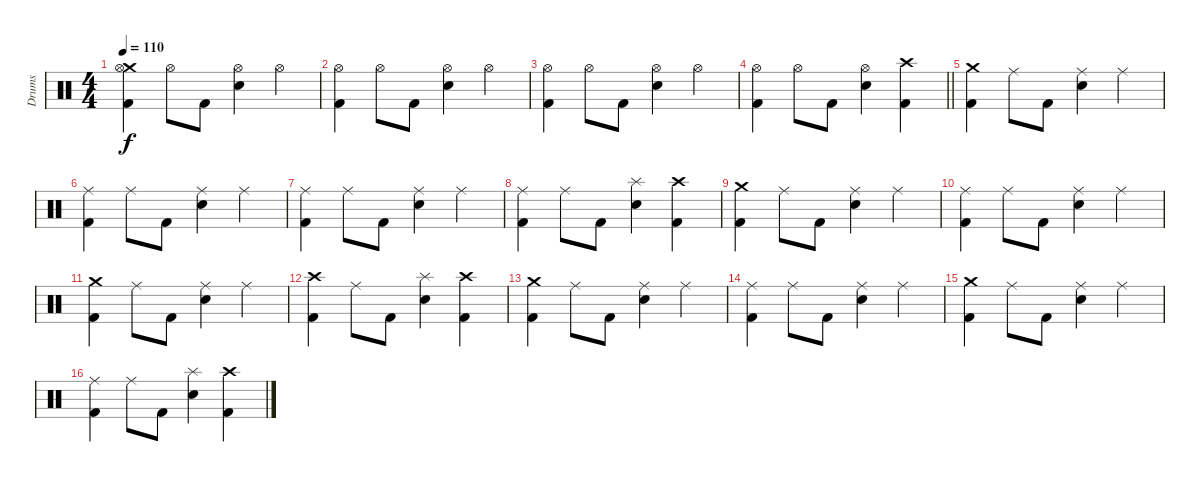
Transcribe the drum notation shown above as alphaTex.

\track ("Drums" "Drums") {instrument percussion}
\staff {score}
\articulation defaults
\ts (4 4)
\tempo 110
\clef neutral
\ks c
("Crash medium (hit)" "Hi-Hat (open)" "Kick (hit) 2").4{dy f} "Hi-Hat (open)".8 "Kick (hit) 2".8 ("Hi-Hat (open)" "Snare (hit) 2").4 "Hi-Hat (open)".4 |
("Hi-Hat (open)" "Kick (hit) 2").4 "Hi-Hat (open)".8 "Kick (hit) 2".8 ("Hi-Hat (open)" "Snare (hit) 2").4 "Hi-Hat (open)".4 |
("Hi-Hat (open)" "Kick (hit) 2").4 "Hi-Hat (open)".8 "Kick (hit) 2".8 ("Hi-Hat (open)" "Snare (hit) 2").4 "Hi-Hat (open)".4 |
\barLineRight lightlight
("Hi-Hat (open)" "Kick (hit) 2").4 "Hi-Hat (open)".8 "Kick (hit) 2".8 ("Hi-Hat (open)" "Snare (hit) 2").4 ("Crash high (hit)" "Kick (hit) 2").4 |
("Crash medium (hit)" "Kick (hit) 2").4 "Ride (middle)".8 "Kick (hit) 2".8 ("Ride (middle)" "Snare (hit) 2").4 "Ride (middle)".4 |
("Ride (middle)" "Kick (hit) 2").4 "Ride (middle)".8 "Kick (hit) 2".8 ("Ride (middle)" "Snare (hit) 2").4 "Ride (middle)".4 |
("Ride (middle)" "Kick (hit) 2").4 "Ride (middle)".8 "Kick (hit) 2".8 ("Ride (middle)" "Snare (hit) 2").4 "Ride (middle)".4 |
("Ride (middle)" "Kick (hit) 2").4 "Ride (middle)".8 "Kick (hit) 2".8 ("Splash (hit)" "Snare (hit) 2").4 ("Crash high (hit)" "Kick (hit) 2").4 |
("Crash medium (hit)" "Kick (hit) 2").4 "Ride (middle)".8 "Kick (hit) 2".8 ("Ride (middle)" "Snare (hit) 2").4 "Ride (middle)".4 |
("Ride (middle)" "Kick (hit) 2").4 "Ride (middle)".8 "Kick (hit) 2".8 ("Ride (middle)" "Snare (hit) 2").4 "Ride (middle)".4 |
("Crash medium (hit)" "Kick (hit) 2").4 "Ride (middle)".8 "Kick (hit) 2".8 ("Ride (middle)" "Snare (hit) 2").4 "Ride (middle)".4 |
("Crash high (hit)" "Kick (hit) 2").4 "Ride (middle)".8 "Kick (hit) 2".8 ("Splash (hit)" "Snare (hit) 2").4 ("Crash high (hit)" "Kick (hit) 2").4 |
("Crash medium (hit)" "Kick (hit) 2").4 "Ride (middle)".8 "Kick (hit) 2".8 ("Ride (middle)" "Snare (hit) 2").4 "Ride (middle)".4 |
("Ride (middle)" "Kick (hit) 2").4 "Ride (middle)".8 "Kick (hit) 2".8 ("Ride (middle)" "Snare (hit) 2").4 "Ride (middle)".4 |
("Crash medium (hit)" "Kick (hit) 2").4 "Ride (middle)".8 "Kick (hit) 2".8 ("Ride (middle)" "Snare (hit) 2").4 "Ride (middle)".4 |
("Ride (middle)" "Kick (hit) 2").4 "Ride (middle)".8 "Kick (hit) 2".8 ("Splash (hit)" "Snare (hit) 2").4 ("Crash high (hit)" "Kick (hit) 2").4
